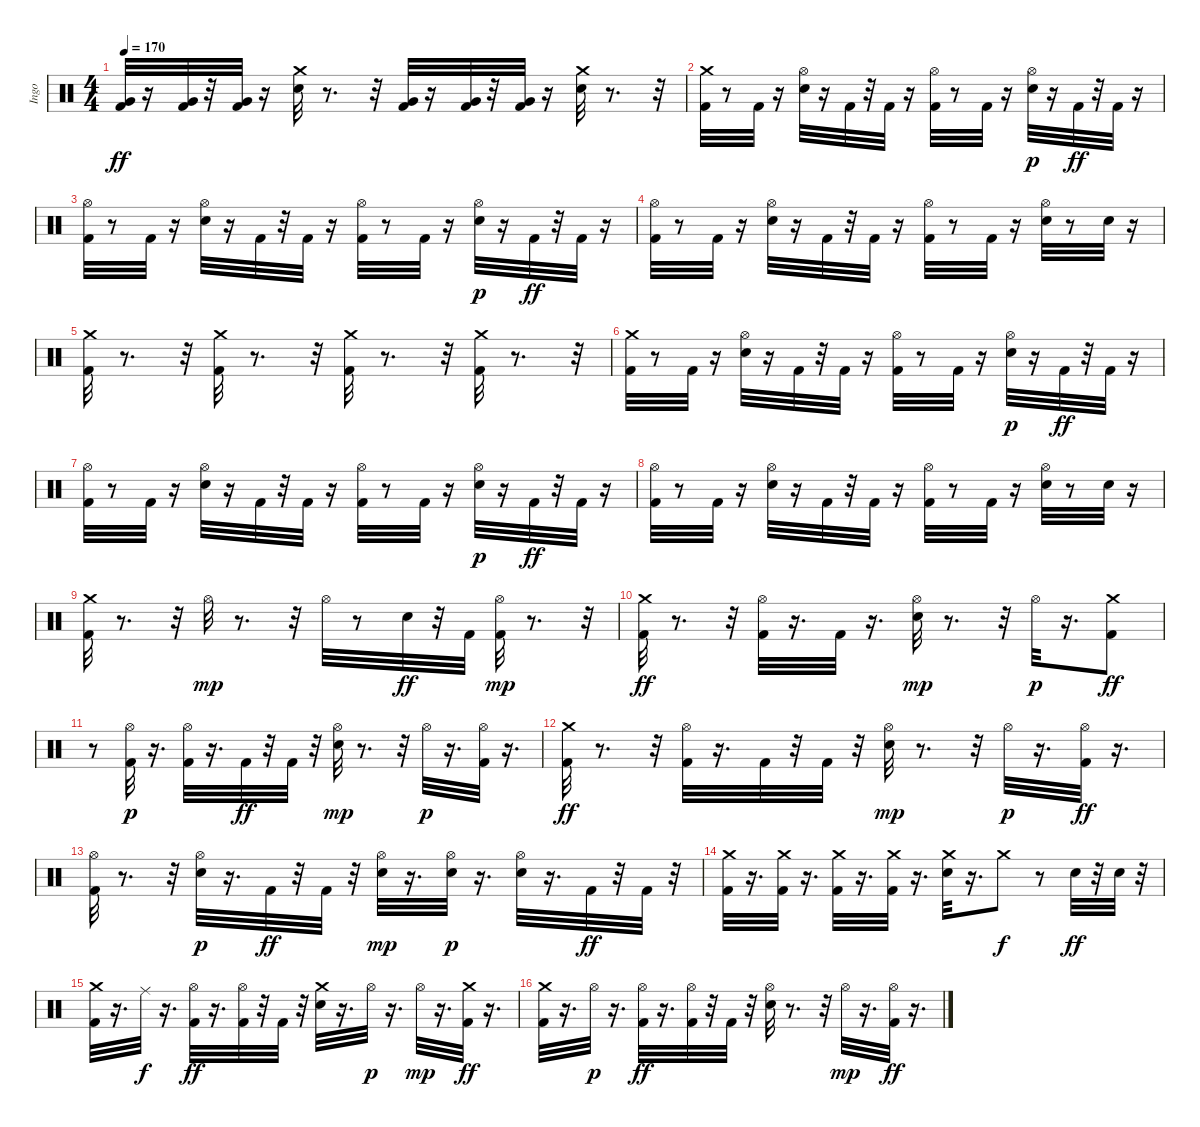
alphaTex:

\track ("Ingo" "Ingo") {instrument percussion}
\staff {score}
\articulation defaults
\ts (4 4)
\tempo 170
\clef neutral
\ks c
("Very Low Tom (hit)" "Kick (hit) 2").32{dy ff} r.16 ("Very Low Tom (hit)" "Kick (hit) 2").32 r.32 ("Very Low Tom (hit)" "Kick (hit) 2").32 r.16 ("Crash medium (hit)" "Snare (hit) 2").32 r.8{d} r.32 ("Very Low Tom (hit)" "Kick (hit) 2").32 r.16 ("Very Low Tom (hit)" "Kick (hit) 2").32 r.32 ("Very Low Tom (hit)" "Kick (hit) 2").32 r.16 ("Crash medium (hit)" "Snare (hit) 2").32 r.8{d} r.32 |
("Crash medium (hit)" "Kick (hit) 2").32 r.8 "Kick (hit) 2".32 r.16 ("Hi-Hat (open)" "Snare (hit) 2").32 r.16 "Kick (hit) 2".32 r.32 "Kick (hit) 2".32 r.16 ("Hi-Hat (open)" "Kick (hit) 2").32 r.8 "Kick (hit) 2".32 r.16 ("Snare (hit) 2" "Hi-Hat (open)").32{dy p} r.16 "Kick (hit) 2".32{dy ff} r.32 "Kick (hit) 2".32 r.16 |
("Hi-Hat (open)" "Kick (hit) 2").32 r.8 "Kick (hit) 2".32 r.16 ("Hi-Hat (open)" "Snare (hit) 2").32 r.16 "Kick (hit) 2".32 r.32 "Kick (hit) 2".32 r.16 ("Hi-Hat (open)" "Kick (hit) 2").32 r.8 "Kick (hit) 2".32 r.16 ("Snare (hit) 2" "Hi-Hat (open)").32{dy p} r.16 "Kick (hit) 2".32{dy ff} r.32 "Kick (hit) 2".32 r.16 |
("Hi-Hat (open)" "Kick (hit) 2").32 r.8 "Kick (hit) 2".32 r.16 ("Hi-Hat (open)" "Snare (hit) 2").32 r.16 "Kick (hit) 2".32 r.32 "Kick (hit) 2".32 r.16 ("Hi-Hat (open)" "Kick (hit) 2").32 r.8 "Kick (hit) 2".32 r.16 ("Hi-Hat (open)" "Snare (hit) 2").32 r.8 "Snare (hit) 2".32 r.16 |
("Crash medium (hit)" "Kick (hit) 2").32 r.8{d} r.32 ("Crash medium (hit)" "Kick (hit) 2").32 r.8{d} r.32 ("Crash medium (hit)" "Kick (hit) 2").32 r.8{d} r.32 ("Crash medium (hit)" "Kick (hit) 2").32 r.8{d} r.32 |
("Crash medium (hit)" "Kick (hit) 2").32 r.8 "Kick (hit) 2".32 r.16 ("Hi-Hat (open)" "Snare (hit) 2").32 r.16 "Kick (hit) 2".32 r.32 "Kick (hit) 2".32 r.16 ("Hi-Hat (open)" "Kick (hit) 2").32 r.8 "Kick (hit) 2".32 r.16 ("Snare (hit) 2" "Hi-Hat (open)").32{dy p} r.16 "Kick (hit) 2".32{dy ff} r.32 "Kick (hit) 2".32 r.16 |
("Hi-Hat (open)" "Kick (hit) 2").32 r.8 "Kick (hit) 2".32 r.16 ("Hi-Hat (open)" "Snare (hit) 2").32 r.16 "Kick (hit) 2".32 r.32 "Kick (hit) 2".32 r.16 ("Hi-Hat (open)" "Kick (hit) 2").32 r.8 "Kick (hit) 2".32 r.16 ("Snare (hit) 2" "Hi-Hat (open)").32{dy p} r.16 "Kick (hit) 2".32{dy ff} r.32 "Kick (hit) 2".32 r.16 |
("Hi-Hat (open)" "Kick (hit) 2").32 r.8 "Kick (hit) 2".32 r.16 ("Hi-Hat (open)" "Snare (hit) 2").32 r.16 "Kick (hit) 2".32 r.32 "Kick (hit) 2".32 r.16 ("Hi-Hat (open)" "Kick (hit) 2").32 r.8 "Kick (hit) 2".32 r.16 ("Hi-Hat (open)" "Snare (hit) 2").32 r.8 "Snare (hit) 2".32 r.16 |
("Crash medium (hit)" "Kick (hit) 2").32 r.8{d} r.32 "Hi-Hat (open)".32{dy mp} r.8{d} r.32 "Hi-Hat (open)".32 r.8 "Snare (hit) 2".32{dy ff} r.32 "Kick (hit) 2".32 ("Kick (hit) 2" "Hi-Hat (open)").32{dy mp} r.8{d} r.32 |
("Crash medium (hit)" "Kick (hit) 2").32{dy ff} r.8{d} r.32 ("Hi-Hat (open)" "Kick (hit) 2").32 r.16{d} "Kick (hit) 2".32 r.16{d} ("Snare (hit) 2" "Hi-Hat (open)").32{dy mp} r.8{d} r.32 "Hi-Hat (open)".32{dy p} r.16{d} ("Crash medium (hit)" "Kick (hit) 2").8{dy ff} |
r.8 ("Kick (hit) 2" "Hi-Hat (open)").32{dy p} r.16{d} ("Kick (hit) 2" "Hi-Hat (open)").32 r.16{d} "Kick (hit) 2".32{dy ff} r.32 "Kick (hit) 2".32 r.32 ("Snare (hit) 2" "Hi-Hat (open)").32{dy mp} r.8{d} r.32 "Hi-Hat (open)".32{dy p} r.16{d} ("Kick (hit) 2" "Hi-Hat (open)").32 r.16{d} |
("Crash medium (hit)" "Kick (hit) 2").32{dy ff} r.8{d} r.32 ("Hi-Hat (open)" "Kick (hit) 2").32 r.16{d} "Kick (hit) 2".32 r.32 "Kick (hit) 2".32 r.32 ("Snare (hit) 2" "Hi-Hat (open)").32{dy mp} r.8{d} r.32 "Hi-Hat (open)".32{dy p} r.16{d} ("Hi-Hat (open)" "Kick (hit) 2").32{dy ff} r.16{d} |
("Hi-Hat (open)" "Kick (hit) 2").32 r.8{d} r.32 ("Snare (hit) 2" "Hi-Hat (open)").32{dy p} r.16{d} "Kick (hit) 2".32{dy ff} r.32 "Kick (hit) 2".32 r.32 ("Snare (hit) 2" "Hi-Hat (open)").32{dy mp} r.16{d} ("Snare (hit) 2" "Hi-Hat (open)").32{dy p} r.16{d} ("Snare (hit) 2" "Hi-Hat (open)").32 r.16{d} "Kick (hit) 2".32{dy ff} r.32 "Kick (hit) 2".32 r.32 |
("Crash medium (hit)" "Kick (hit) 2").32 r.16{d} ("Crash medium (hit)" "Kick (hit) 2").32 r.16{d} ("Crash medium (hit)" "Kick (hit) 2").32 r.16{d} ("Crash medium (hit)" "Kick (hit) 2").32 r.16{d} ("Snare (hit) 2" "Crash medium (hit)").32 r.16{d} "Crash medium (hit)".8{dy f} r.8 "Snare (hit) 2".32{dy ff} r.32 "Snare (hit) 2".32 r.32 |
("Crash medium (hit)" "Kick (hit) 2").32 r.16{d} "Ride (middle)".32{dy f} r.16{d} ("Hi-Hat (open)" "Kick (hit) 2").32{dy ff} r.16{d} ("Hi-Hat (open)" "Kick (hit) 2").32 r.32 "Kick (hit) 2".32 r.32 ("Snare (hit) 2" "Crash medium (hit)").32 r.16{d} "Hi-Hat (open)".32{dy p} r.16{d} "Hi-Hat (open)".32{dy mp} r.16{d} ("Crash medium (hit)" "Kick (hit) 2").32{dy ff} r.16{d} |
("Crash medium (hit)" "Kick (hit) 2").32 r.16{d} "Hi-Hat (open)".32{dy p} r.16{d} ("Hi-Hat (open)" "Kick (hit) 2").32{dy ff} r.16{d} ("Hi-Hat (open)" "Kick (hit) 2").32 r.32 "Kick (hit) 2".32 r.32 ("Hi-Hat (open)" "Snare (hit) 2").32 r.8{d} r.32 "Hi-Hat (open)".32{dy mp} r.16{d} ("Hi-Hat (open)" "Kick (hit) 2").32{dy ff} r.16{d}
